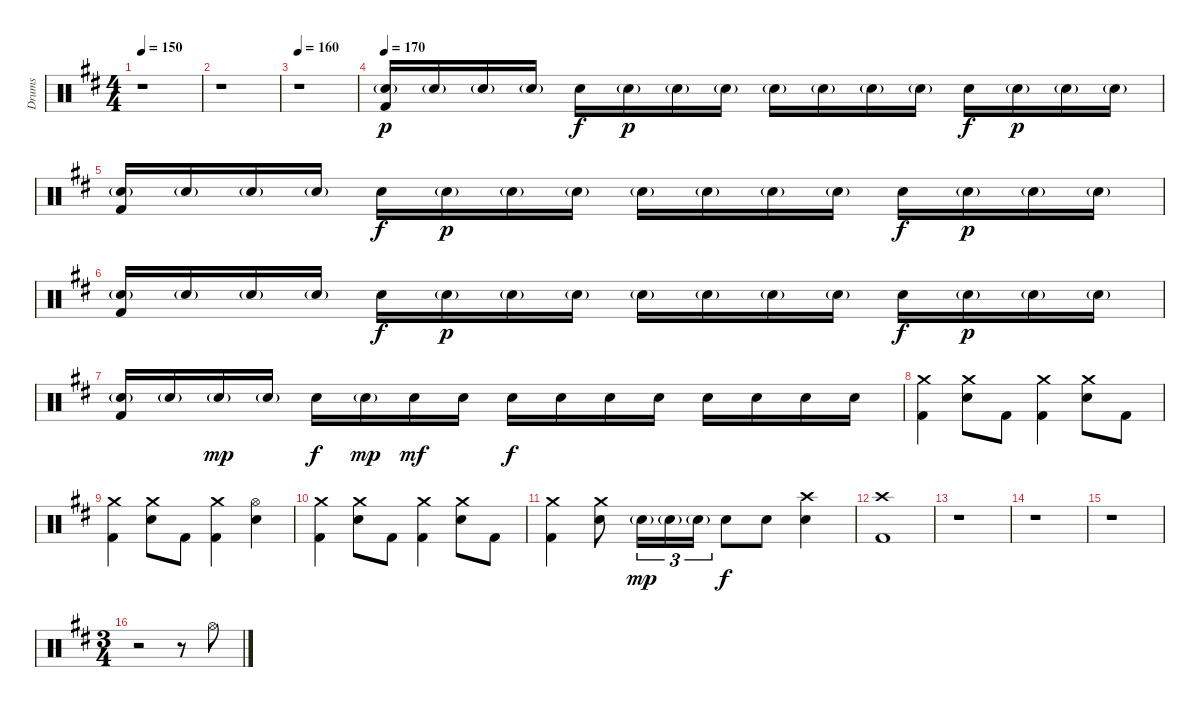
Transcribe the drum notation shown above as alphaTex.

\track ("Drums" "Drums") {instrument percussion}
\staff {score}
\articulation defaults
\ts (4 4)
\tempo 150
\clef neutral
\ks d
r.1{dy f} |
r.1 |
\tempo 160
r.1 |
\tempo 170
("Electric Snare (hit)"{g} "Kick (hit) 2").16{dy p} "Electric Snare (hit)"{g}.16 "Electric Snare (hit)"{g}.16 "Electric Snare (hit)"{g}.16 "Electric Snare (hit)".16{dy f} "Electric Snare (hit)"{g}.16{dy p} "Electric Snare (hit)"{g}.16 "Electric Snare (hit)"{g}.16 "Electric Snare (hit)"{g}.16 "Electric Snare (hit)"{g}.16 "Electric Snare (hit)"{g}.16 "Electric Snare (hit)"{g}.16 "Electric Snare (hit)".16{dy f} "Electric Snare (hit)"{g}.16{dy p} "Electric Snare (hit)"{g}.16 "Electric Snare (hit)"{g}.16 |
("Electric Snare (hit)"{g} "Kick (hit) 2").16 "Electric Snare (hit)"{g}.16 "Electric Snare (hit)"{g}.16 "Electric Snare (hit)"{g}.16 "Electric Snare (hit)".16{dy f} "Electric Snare (hit)"{g}.16{dy p} "Electric Snare (hit)"{g}.16 "Electric Snare (hit)"{g}.16 "Electric Snare (hit)"{g}.16 "Electric Snare (hit)"{g}.16 "Electric Snare (hit)"{g}.16 "Electric Snare (hit)"{g}.16 "Electric Snare (hit)".16{dy f} "Electric Snare (hit)"{g}.16{dy p} "Electric Snare (hit)"{g}.16 "Electric Snare (hit)"{g}.16 |
("Electric Snare (hit)"{g} "Kick (hit) 2").16 "Electric Snare (hit)"{g}.16 "Electric Snare (hit)"{g}.16 "Electric Snare (hit)"{g}.16 "Electric Snare (hit)".16{dy f} "Electric Snare (hit)"{g}.16{dy p} "Electric Snare (hit)"{g}.16 "Electric Snare (hit)"{g}.16 "Electric Snare (hit)"{g}.16 "Electric Snare (hit)"{g}.16 "Electric Snare (hit)"{g}.16 "Electric Snare (hit)"{g}.16 "Electric Snare (hit)".16{dy f} "Electric Snare (hit)"{g}.16{dy p} "Electric Snare (hit)"{g}.16 "Electric Snare (hit)"{g}.16 |
("Electric Snare (hit)"{g} "Kick (hit) 2").16 "Electric Snare (hit)"{g}.16 "Electric Snare (hit)"{g}.16{dy mp} "Electric Snare (hit)"{g}.16 "Electric Snare (hit)".16{dy f} "Electric Snare (hit)"{g}.16{dy mp} "Electric Snare (hit)".16{dy mf} "Electric Snare (hit)".16 "Electric Snare (hit)".16{dy f} "Electric Snare (hit)".16 "Electric Snare (hit)".16 "Electric Snare (hit)".16 "Electric Snare (hit)".16 "Electric Snare (hit)".16 "Electric Snare (hit)".16 "Electric Snare (hit)".16 |
("Crash medium (hit)" "Kick (hit) 2").4 ("Crash medium (hit)" "Electric Snare (hit)").8 "Kick (hit) 2".8 ("Crash medium (hit)" "Kick (hit) 2").4 ("Crash medium (hit)" "Electric Snare (hit)").8 "Kick (hit) 2".8 |
("Crash medium (hit)" "Kick (hit) 2").4 ("Crash medium (hit)" "Electric Snare (hit)").8 "Kick (hit) 2".8 ("Crash medium (hit)" "Kick (hit) 2").4 ("Hi-Hat (open)" "Electric Snare (hit)").4 |
("Crash medium (hit)" "Kick (hit) 2").4 ("Crash medium (hit)" "Electric Snare (hit)").8 "Kick (hit) 2".8 ("Crash medium (hit)" "Kick (hit) 2").4 ("Crash medium (hit)" "Electric Snare (hit)").8 "Kick (hit) 2".8 |
("Crash medium (hit)" "Kick (hit) 2").4 ("Crash medium (hit)" "Electric Snare (hit)").8 "Electric Snare (hit)"{g}.16{tu (3 2) dy mp} "Electric Snare (hit)"{g}.16{tu (3 2)} "Electric Snare (hit)"{g}.16{tu (3 2)} "Electric Snare (hit)".8{dy f} "Electric Snare (hit)".8 ("Crash high (hit)" "Electric Snare (hit)").4 |
("Crash high (hit)" "Kick (hit) 2").1 |
r.1 |
r.1 |
r.1 |
\ts (3 4)
r.2 r.8 "Hi-Hat (open)".8
